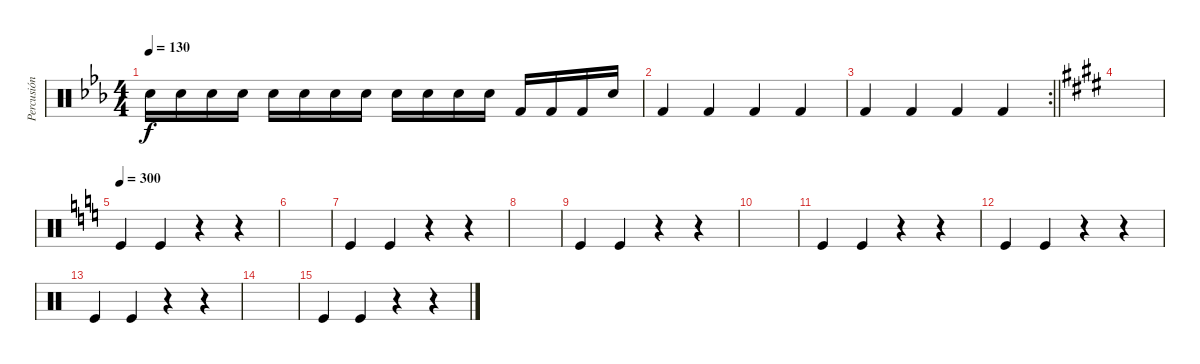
\track ("Percusión" "Percusión") {instrument percussion}
\staff {score}
\articulation defaults
\ts (4 4)
\tempo 130
\clef neutral
\ks eb "Snare (hit) 2".16{dy f} "Snare (hit) 2".16 "Snare (hit) 2".16 "Snare (hit) 2".16 "Snare (hit)".16 "Snare (hit) 2".16 "Snare (hit) 2".16 "Snare (hit) 2".16 "Snare (hit) 2".16 "Snare (hit)".16 "Snare (hit)".16 "Snare (hit)".16 "Kick (hit) 2".16 "Kick (hit) 2".16 "Kick (hit) 2".16 "Snare (hit)".16
|
"Kick (hit) 2".4 "Kick (hit) 2".4 "Kick (hit) 2".4 "Kick (hit) 2".4 |
\rc 2
\barLineRight lightlight "Kick (hit) 2".4 "Kick (hit) 2".4 "Kick (hit) 2".4 "Kick (hit) 2".4
|
\ks e
|
\tempo 300
\ks c "Kick (hit)".4 "Kick (hit)".4
r.4 r.4 |
|
"Kick (hit)".4 "Kick (hit)".4 r.4 r.4 |
|
"Kick (hit)".4 "Kick (hit)".4 r.4 r.4 |
|
"Kick (hit)".4 "Kick (hit)".4 r.4 r.4 |
"Kick (hit)".4 "Kick (hit)".4 r.4 r.4 |
"Kick (hit)".4 "Kick (hit)".4 r.4 r.4 |
|
"Kick (hit)".4 "Kick (hit)".4 r.4 r.4
